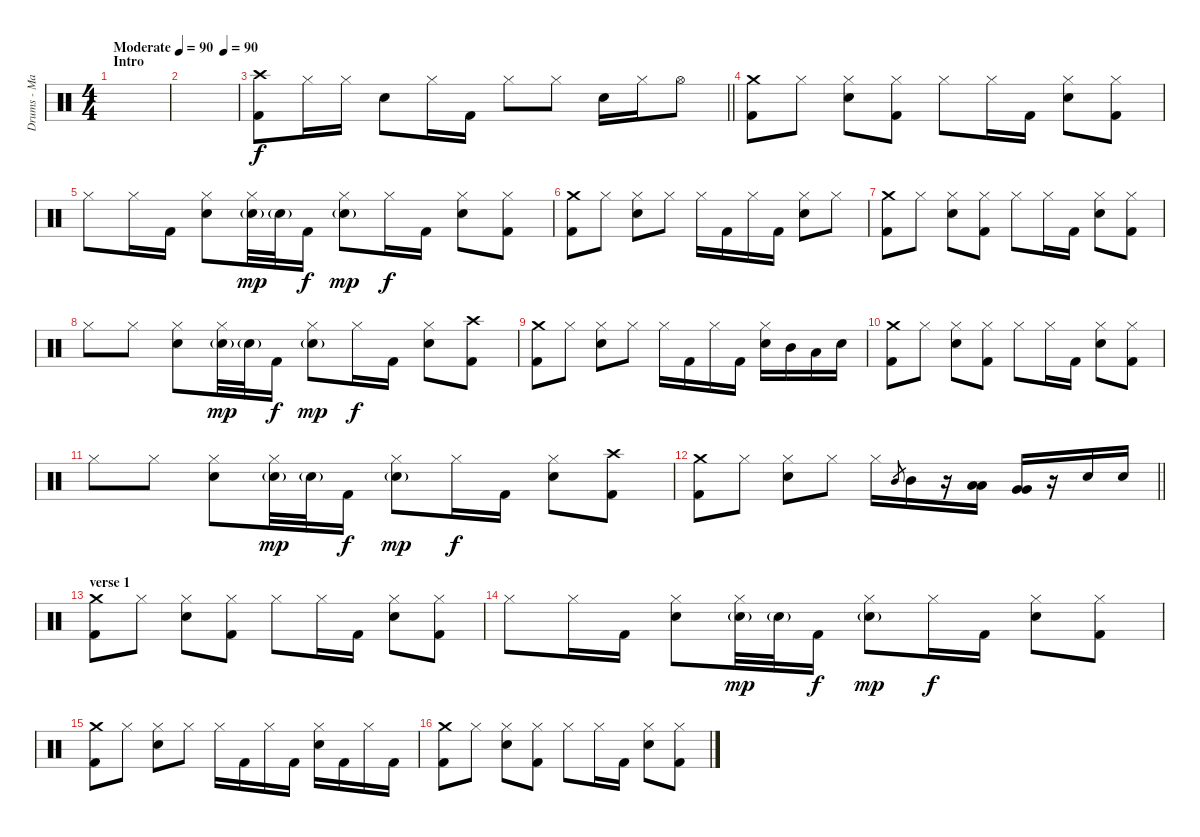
\track ("Drums - Mario Duplantier" "Drums - Ma") {instrument percussion}
\staff {score}
\articulation defaults
\ts (4 4)
\section ("" "Intro")
\tempo (90 "Moderate")
\tempo 70
\tempo (90 "Moderate")
\clef neutral
\ks c
|
\tempo (90 0.75)
|
\barLineRight lightlight
("Crash high (hit)" "Kick (hit) 2").8 "Hi-Hat (closed)".16 "Hi-Hat (closed)".16 "Electric Snare (hit)".8 "Hi-Hat (closed)".16 "Kick (hit) 2".16 "Hi-Hat (closed)".8 "Hi-Hat (closed)".8 "Electric Snare (hit)".16 "Hi-Hat (closed)".16 "Hi-Hat (open)".8 |
\section ("" "")
("Crash medium (hit)" "Kick (hit) 2").8 "Hi-Hat (closed)".8 ("Hi-Hat (closed)" "Electric Snare (hit)").8 ("Hi-Hat (closed)" "Kick (hit) 2").8 "Hi-Hat (closed)".8 "Hi-Hat (closed)".16 "Kick (hit) 2".16 ("Hi-Hat (closed)" "Electric Snare (hit)").8 ("Hi-Hat (closed)" "Kick (hit) 2").8 |
"Hi-Hat (closed)".8 "Hi-Hat (closed)".16 "Kick (hit) 2".16 ("Hi-Hat (closed)" "Electric Snare (hit)").8 ("Hi-Hat (closed)" "Electric Snare (hit)"{g}).32{dy mp} "Electric Snare (hit)"{g}.32 "Kick (hit) 2".16{dy f} ("Hi-Hat (closed)" "Electric Snare (hit)"{g}).8{dy mp} "Hi-Hat (closed)".16{dy f} "Kick (hit) 2".16 ("Hi-Hat (closed)" "Electric Snare (hit)").8 ("Hi-Hat (closed)" "Kick (hit) 2").8 |
("Crash medium (hit)" "Kick (hit) 2").8 "Hi-Hat (closed)".8 ("Hi-Hat (closed)" "Electric Snare (hit)").8 "Hi-Hat (closed)".8 "Hi-Hat (closed)".16 "Kick (hit) 2".16 "Hi-Hat (closed)".16 "Kick (hit) 2".16 ("Hi-Hat (closed)" "Electric Snare (hit)").8 "Hi-Hat (closed)".8 |
("Crash medium (hit)" "Kick (hit) 2").8 "Hi-Hat (closed)".8 ("Hi-Hat (closed)" "Electric Snare (hit)").8 ("Hi-Hat (closed)" "Kick (hit) 2").8 "Hi-Hat (closed)".8 "Hi-Hat (closed)".16 "Kick (hit) 2".16 ("Hi-Hat (closed)" "Electric Snare (hit)").8 ("Hi-Hat (closed)" "Kick (hit) 2").8 |
"Hi-Hat (closed)".8 "Hi-Hat (closed)".8 ("Hi-Hat (closed)" "Electric Snare (hit)").8 ("Hi-Hat (closed)" "Electric Snare (hit)"{g}).32{dy mp} "Electric Snare (hit)"{g}.32 "Kick (hit) 2".16{dy f} ("Hi-Hat (closed)" "Electric Snare (hit)"{g}).8{dy mp} "Hi-Hat (closed)".16{dy f} "Kick (hit) 2".16 ("Hi-Hat (closed)" "Electric Snare (hit)").8 ("Crash high (hit)" "Kick (hit) 2").8 |
("Crash medium (hit)" "Kick (hit) 2").8 "Hi-Hat (closed)".8 ("Hi-Hat (closed)" "Electric Snare (hit)").8 "Hi-Hat (closed)".8 "Hi-Hat (closed)".16 "Kick (hit) 2".16 "Hi-Hat (closed)".16 "Kick (hit) 2".16 ("Hi-Hat (closed)" "Electric Snare (hit)").16 "Mid Tom (hit)".16 "Low Tom (hit)".16 "Electric Snare (hit)".16 |
("Crash medium (hit)" "Kick (hit) 2").8 "Hi-Hat (closed)".8 ("Hi-Hat (closed)" "Electric Snare (hit)").8 ("Hi-Hat (closed)" "Kick (hit) 2").8 "Hi-Hat (closed)".8 "Hi-Hat (closed)".16 "Kick (hit) 2".16 ("Hi-Hat (closed)" "Electric Snare (hit)").8 ("Hi-Hat (closed)" "Kick (hit) 2").8 |
"Hi-Hat (closed)".8 "Hi-Hat (closed)".8 ("Hi-Hat (closed)" "Electric Snare (hit)").8 ("Hi-Hat (closed)" "Electric Snare (hit)"{g}).32{dy mp} "Electric Snare (hit)"{g}.32 "Kick (hit) 2".16{dy f} ("Hi-Hat (closed)" "Electric Snare (hit)"{g}).8{dy mp} "Hi-Hat (closed)".16{dy f} "Kick (hit) 2".16 ("Hi-Hat (closed)" "Electric Snare (hit)").8 ("Crash high (hit)" "Kick (hit) 2").8 |
\barLineRight lightlight
("Crash medium (hit)" "Kick (hit) 2").8 "Hi-Hat (closed)".8 ("Hi-Hat (closed)" "Electric Snare (hit)").8 "Hi-Hat (closed)".8 "Hi-Hat (closed)".16 "Mid Tom (hit)".8{gr} "Mid Tom (hit)".16 r.16 ("Low Tom (hit)" "Low Tom (hit)").16 ("Very Low Tom (hit)" "Very Low Tom (hit)").16 r.16 "Electric Snare (hit)".16 "Electric Snare (hit)".16 |
\section ("" "verse 1")
("Crash medium (hit)" "Kick (hit) 2").8 "Hi-Hat (closed)".8 ("Hi-Hat (closed)" "Electric Snare (hit)").8 ("Hi-Hat (closed)" "Kick (hit) 2").8 "Hi-Hat (closed)".8 "Hi-Hat (closed)".16 "Kick (hit) 2".16 ("Hi-Hat (closed)" "Electric Snare (hit)").8 ("Hi-Hat (closed)" "Kick (hit) 2").8 |
"Hi-Hat (closed)".8 "Hi-Hat (closed)".16 "Kick (hit) 2".16 ("Hi-Hat (closed)" "Electric Snare (hit)").8 ("Hi-Hat (closed)" "Electric Snare (hit)"{g}).32{dy mp} "Electric Snare (hit)"{g}.32 "Kick (hit) 2".16{dy f} ("Hi-Hat (closed)" "Electric Snare (hit)"{g}).8{dy mp} "Hi-Hat (closed)".16{dy f} "Kick (hit) 2".16 ("Hi-Hat (closed)" "Electric Snare (hit)").8 ("Hi-Hat (closed)" "Kick (hit) 2").8 |
("Crash medium (hit)" "Kick (hit) 2").8 "Hi-Hat (closed)".8 ("Hi-Hat (closed)" "Electric Snare (hit)").8 "Hi-Hat (closed)".8 "Hi-Hat (closed)".16 "Kick (hit) 2".16 "Hi-Hat (closed)".16 "Kick (hit) 2".16 ("Hi-Hat (closed)" "Electric Snare (hit)").16 "Kick (hit) 2".16 "Hi-Hat (closed)".16 "Kick (hit) 2".16 |
("Crash medium (hit)" "Kick (hit) 2").8 "Hi-Hat (closed)".8 ("Hi-Hat (closed)" "Electric Snare (hit)").8 ("Hi-Hat (closed)" "Kick (hit) 2").8 "Hi-Hat (closed)".8 "Hi-Hat (closed)".16 "Kick (hit) 2".16 ("Hi-Hat (closed)" "Electric Snare (hit)").8 ("Hi-Hat (closed)" "Kick (hit) 2").8
